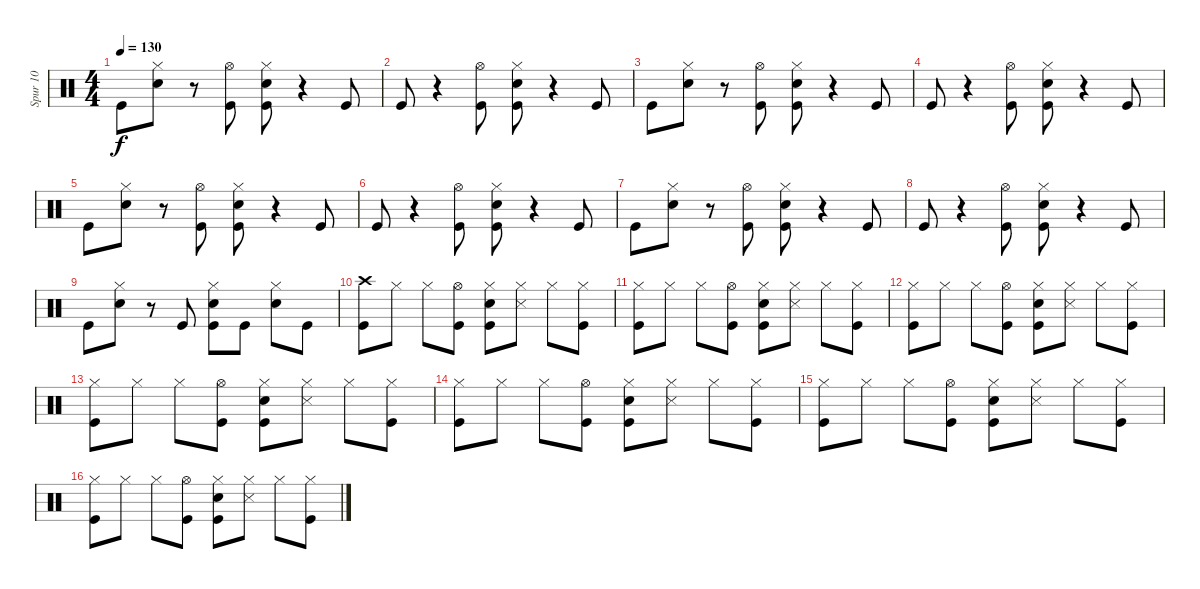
\track ("Spur 10" "Spur 10") {instrument percussion}
\staff {score}
\articulation defaults
\ts (4 4)
\tempo 130
\clef neutral
\ks c "Kick (hit)".8{dy f}
("Snare (hit) 2" "Hi-Hat (closed)").8 r.8 ("Kick (hit)" "Hi-Hat (open)").8 ("Hi-Hat (closed)" "Snare (hit) 2" "Kick (hit)").8 r.4 "Kick (hit)".8 |
"Kick (hit)".8 r.4 ("Hi-Hat (open)" "Kick (hit)").8 ("Hi-Hat (closed)" "Snare (hit) 2" "Kick (hit)").8 r.4 "Kick (hit)".8 |
"Kick (hit)".8 ("Snare (hit) 2" "Hi-Hat (closed)").8 r.8 ("Kick (hit)" "Hi-Hat (open)").8 ("Hi-Hat (closed)" "Snare (hit) 2" "Kick (hit)").8 r.4 "Kick (hit)".8 |
"Kick (hit)".8 r.4 ("Hi-Hat (open)" "Kick (hit)").8 ("Hi-Hat (closed)" "Snare (hit) 2" "Kick (hit)").8 r.4 "Kick (hit)".8 |
"Kick (hit)".8 ("Snare (hit) 2" "Hi-Hat (closed)").8 r.8 ("Kick (hit)" "Hi-Hat (open)").8 ("Hi-Hat (closed)" "Snare (hit) 2" "Kick (hit)").8 r.4 "Kick (hit)".8 |
"Kick (hit)".8 r.4 ("Hi-Hat (open)" "Kick (hit)").8 ("Hi-Hat (closed)" "Snare (hit) 2" "Kick (hit)").8 r.4 "Kick (hit)".8 |
"Kick (hit)".8 ("Snare (hit) 2" "Hi-Hat (closed)").8 r.8 ("Kick (hit)" "Hi-Hat (open)").8 ("Hi-Hat (closed)" "Snare (hit) 2" "Kick (hit)").8 r.4 "Kick (hit)".8 |
"Kick (hit)".8 r.4 ("Hi-Hat (open)" "Kick (hit)").8 ("Hi-Hat (closed)" "Snare (hit) 2" "Kick (hit)").8 r.4 "Kick (hit)".8 |
"Kick (hit)".8 ("Snare (hit) 2" "Hi-Hat (closed)").8 r.8 "Kick (hit)".8 ("Hi-Hat (closed)" "Kick (hit)" "Snare (hit) 2").8 "Kick (hit)".8 ("Hi-Hat (closed)" "Snare (hit) 2").8 "Kick (hit)".8 |
("Kick (hit)" "Crash high (hit)").8 "Hi-Hat (closed)".8 "Hi-Hat (closed)".8 ("Kick (hit)" "Hi-Hat (open)").8 ("Snare (hit) 2" "Kick (hit)" "Hi-Hat (closed)").8 ("Snare (side stick) 3" "Hi-Hat (closed)").8 "Hi-Hat (closed)".8 ("Kick (hit)" "Hi-Hat (closed)").8 |
("Kick (hit)" "Hi-Hat (closed)").8 "Hi-Hat (closed)".8 "Hi-Hat (closed)".8 ("Kick (hit)" "Hi-Hat (open)").8 ("Snare (hit) 2" "Kick (hit)" "Hi-Hat (closed)").8 ("Snare (side stick) 3" "Hi-Hat (closed)").8 "Hi-Hat (closed)".8 ("Kick (hit)" "Hi-Hat (closed)").8 |
("Kick (hit)" "Hi-Hat (closed)").8 "Hi-Hat (closed)".8 "Hi-Hat (closed)".8 ("Kick (hit)" "Hi-Hat (open)").8 ("Snare (hit) 2" "Kick (hit)" "Hi-Hat (closed)").8 ("Snare (side stick) 3" "Hi-Hat (closed)").8 "Hi-Hat (closed)".8 ("Kick (hit)" "Hi-Hat (closed)").8 |
("Kick (hit)" "Hi-Hat (closed)").8 "Hi-Hat (closed)".8 "Hi-Hat (closed)".8 ("Kick (hit)" "Hi-Hat (open)").8 ("Snare (hit) 2" "Kick (hit)" "Hi-Hat (closed)").8 ("Snare (side stick) 3" "Hi-Hat (closed)").8 "Hi-Hat (closed)".8 ("Kick (hit)" "Hi-Hat (closed)").8 |
("Kick (hit)" "Hi-Hat (closed)").8 "Hi-Hat (closed)".8 "Hi-Hat (closed)".8 ("Kick (hit)" "Hi-Hat (open)").8 ("Snare (hit) 2" "Kick (hit)" "Hi-Hat (closed)").8 ("Snare (side stick) 3" "Hi-Hat (closed)").8 "Hi-Hat (closed)".8 ("Kick (hit)" "Hi-Hat (closed)").8 |
("Kick (hit)" "Hi-Hat (closed)").8 "Hi-Hat (closed)".8 "Hi-Hat (closed)".8 ("Kick (hit)" "Hi-Hat (open)").8 ("Snare (hit) 2" "Kick (hit)" "Hi-Hat (closed)").8 ("Snare (side stick) 3" "Hi-Hat (closed)").8 "Hi-Hat (closed)".8 ("Kick (hit)" "Hi-Hat (closed)").8 |
("Kick (hit)" "Hi-Hat (closed)").8 "Hi-Hat (closed)".8 "Hi-Hat (closed)".8 ("Kick (hit)" "Hi-Hat (open)").8 ("Snare (hit) 2" "Kick (hit)" "Hi-Hat (closed)").8 ("Snare (side stick) 3" "Hi-Hat (closed)").8 "Hi-Hat (closed)".8 ("Kick (hit)" "Hi-Hat (closed)").8
